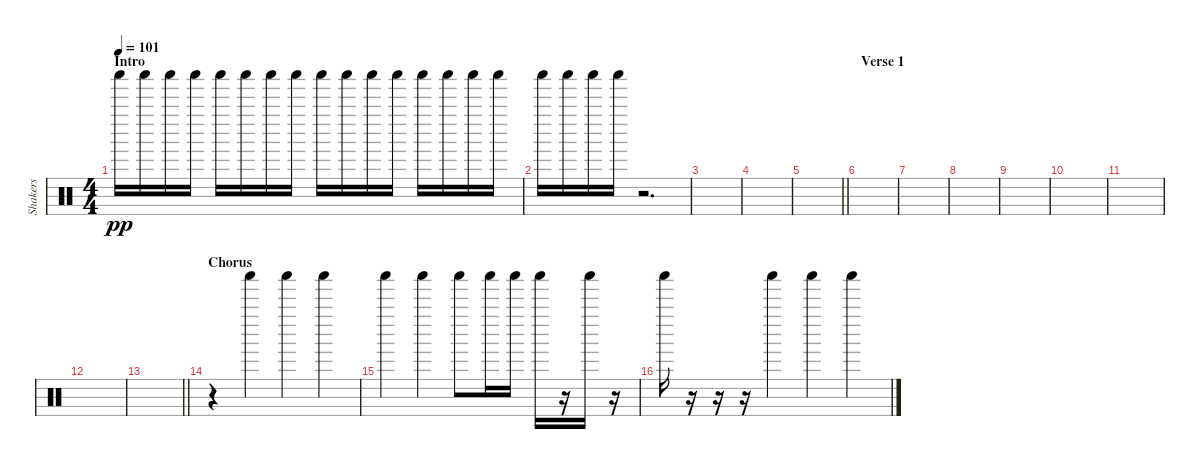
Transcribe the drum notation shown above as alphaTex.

\track ("Shakers" "Shakers") {instrument percussion}
\staff {score}
\articulation defaults
\ts (4 4)
\section ("" "Intro")
\tempo 101
\clef neutral
\ks c "Shaker (hit)".16{dy pp} "Shaker (hit)".16 "Shaker (hit)".16 "Shaker (hit)".16 "Shaker (hit)".16 "Shaker (hit)".16 "Shaker (hit)".16 "Shaker (hit)".16 "Shaker (hit)".16 "Shaker (hit)".16 "Shaker (hit)".16 "Shaker (hit)".16 "Shaker (hit)".16 "Shaker (hit)".16 "Shaker (hit)".16 "Shaker (hit)".16
|
"Shaker (hit)".16 "Shaker (hit)".16 "Shaker (hit)".16 "Shaker (hit)".16 r.2{d} |
|
|
\barLineRight lightlight
|
\section ("" "Verse 1")
|
|
|
|
|
|
|
\barLineRight lightlight
|
\section ("" "Chorus")
r.4 "Shaker (hit)".4 "Shaker (hit)".4 "Shaker (hit)".4 |
"Shaker (hit)".4 "Shaker (hit)".4 "Shaker (hit)".8 "Shaker (hit)".16 "Shaker (hit)".16 "Shaker (hit)".16 r.16 "Shaker (hit)".16 r.16 |
"Shaker (hit)".16 r.16 r.16 r.16 "Shaker (hit)".4 "Shaker (hit)".4 "Shaker (hit)".4
